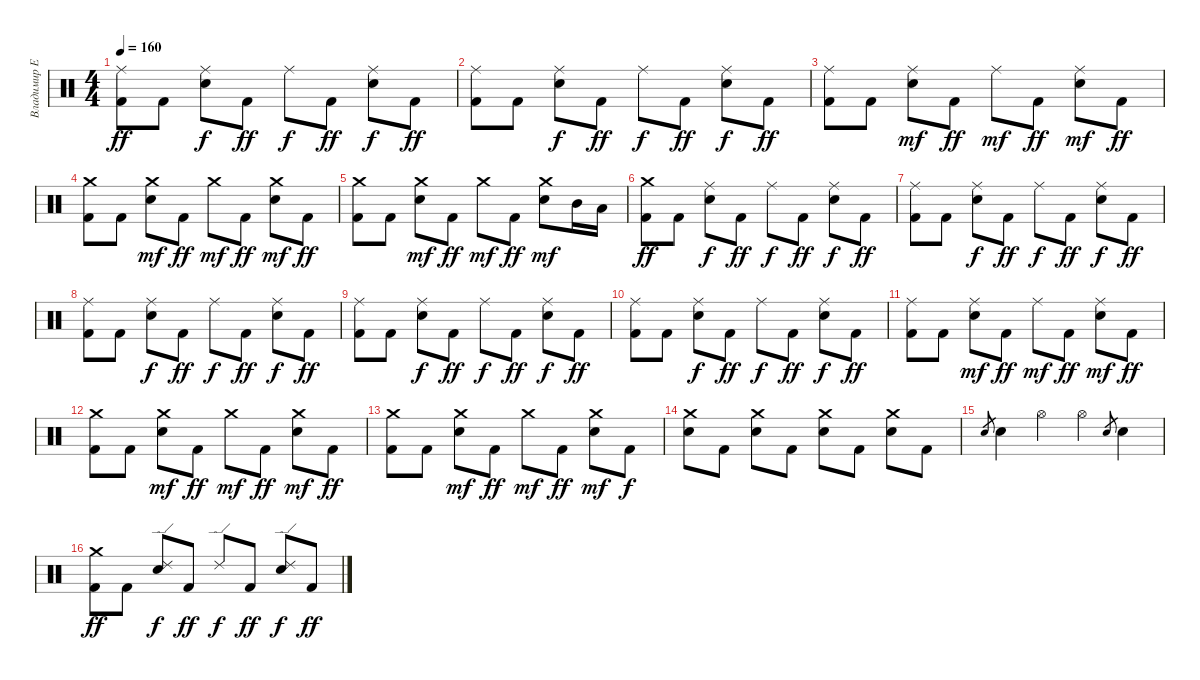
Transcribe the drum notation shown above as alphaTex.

\track ("Владимир Ермаков" "Владимир Е") {instrument percussion}
\staff {score}
\articulation defaults
\ts (4 4)
\tempo 160
\clef neutral
\ks c
("Ride (middle)" "Kick (hit) 2").8{dy ff} "Kick (hit) 2".8 ("Ride (middle)" "Electric Snare (hit)").8{dy f} "Kick (hit) 2".8{dy ff} "Ride (middle)".8{dy f} "Kick (hit) 2".8{dy ff} ("Ride (middle)" "Electric Snare (hit)").8{dy f} "Kick (hit) 2".8{dy ff} |
("Ride (middle)" "Kick (hit) 2").8 "Kick (hit) 2".8 ("Ride (middle)" "Electric Snare (hit)").8{dy f} "Kick (hit) 2".8{dy ff} "Ride (middle)".8{dy f} "Kick (hit) 2".8{dy ff} ("Ride (middle)" "Electric Snare (hit)").8{dy f} "Kick (hit) 2".8{dy ff} |
("Ride (middle)" "Kick (hit) 2").8 "Kick (hit) 2".8 ("Ride (middle)" "Electric Snare (hit)").8{dy mf} "Kick (hit) 2".8{dy ff} "Ride (middle)".8{dy mf} "Kick (hit) 2".8{dy ff} ("Ride (middle)" "Electric Snare (hit)").8{dy mf} "Kick (hit) 2".8{dy ff} |
("Crash medium (hit)" "Kick (hit) 2").8 "Kick (hit) 2".8 ("Crash medium (hit)" "Electric Snare (hit)").8{dy mf} "Kick (hit) 2".8{dy ff} "Crash medium (hit)".8{dy mf} "Kick (hit) 2".8{dy ff} ("Crash medium (hit)" "Electric Snare (hit)").8{dy mf} "Kick (hit) 2".8{dy ff} |
("Crash medium (hit)" "Kick (hit) 2").8 "Kick (hit) 2".8 ("Crash medium (hit)" "Electric Snare (hit)").8{dy mf} "Kick (hit) 2".8{dy ff} "Crash medium (hit)".8{dy mf} "Kick (hit) 2".8{dy ff} ("Crash medium (hit)" "Electric Snare (hit)").8{dy mf} "Mid Tom (hit)".16 "Low Tom (hit)".16 |
("Crash medium (hit)" "Kick (hit) 2").8{dy ff} "Kick (hit) 2".8 ("Ride (middle)" "Electric Snare (hit)").8{dy f} "Kick (hit) 2".8{dy ff} "Ride (middle)".8{dy f} "Kick (hit) 2".8{dy ff} ("Ride (middle)" "Electric Snare (hit)").8{dy f} "Kick (hit) 2".8{dy ff} |
("Ride (middle)" "Kick (hit) 2").8 "Kick (hit) 2".8 ("Ride (middle)" "Electric Snare (hit)").8{dy f} "Kick (hit) 2".8{dy ff} "Ride (middle)".8{dy f} "Kick (hit) 2".8{dy ff} ("Ride (middle)" "Electric Snare (hit)").8{dy f} "Kick (hit) 2".8{dy ff} |
("Ride (middle)" "Kick (hit) 2").8 "Kick (hit) 2".8 ("Ride (middle)" "Electric Snare (hit)").8{dy f} "Kick (hit) 2".8{dy ff} "Ride (middle)".8{dy f} "Kick (hit) 2".8{dy ff} ("Ride (middle)" "Electric Snare (hit)").8{dy f} "Kick (hit) 2".8{dy ff} |
("Ride (middle)" "Kick (hit) 2").8 "Kick (hit) 2".8 ("Ride (middle)" "Electric Snare (hit)").8{dy f} "Kick (hit) 2".8{dy ff} "Ride (middle)".8{dy f} "Kick (hit) 2".8{dy ff} ("Ride (middle)" "Electric Snare (hit)").8{dy f} "Kick (hit) 2".8{dy ff} |
("Ride (middle)" "Kick (hit) 2").8 "Kick (hit) 2".8 ("Ride (middle)" "Electric Snare (hit)").8{dy f} "Kick (hit) 2".8{dy ff} "Ride (middle)".8{dy f} "Kick (hit) 2".8{dy ff} ("Ride (middle)" "Electric Snare (hit)").8{dy f} "Kick (hit) 2".8{dy ff} |
("Ride (middle)" "Kick (hit) 2").8 "Kick (hit) 2".8 ("Ride (middle)" "Electric Snare (hit)").8{dy mf} "Kick (hit) 2".8{dy ff} "Ride (middle)".8{dy mf} "Kick (hit) 2".8{dy ff} ("Ride (middle)" "Electric Snare (hit)").8{dy mf} "Kick (hit) 2".8{dy ff} |
("Crash medium (hit)" "Kick (hit) 2").8 "Kick (hit) 2".8 ("Crash medium (hit)" "Electric Snare (hit)").8{dy mf} "Kick (hit) 2".8{dy ff} "Crash medium (hit)".8{dy mf} "Kick (hit) 2".8{dy ff} ("Crash medium (hit)" "Electric Snare (hit)").8{dy mf} "Kick (hit) 2".8{dy ff} |
("Crash medium (hit)" "Kick (hit) 2").8 "Kick (hit) 2".8 ("Crash medium (hit)" "Electric Snare (hit)").8{dy mf} "Kick (hit) 2".8{dy ff} "Crash medium (hit)".8{dy mf} "Kick (hit) 2".8{dy ff} ("Crash medium (hit)" "Electric Snare (hit)").8{dy mf} "Kick (hit) 2".8{dy f} |
("Crash medium (hit)" "Electric Snare (hit)").8 "Kick (hit) 2".8 ("Crash medium (hit)" "Electric Snare (hit)").8 "Kick (hit) 2".8 ("Crash medium (hit)" "Electric Snare (hit)").8 "Kick (hit) 2".8 ("Crash medium (hit)" "Electric Snare (hit)").8 "Kick (hit) 2".8 |
"Electric Snare (hit)".8{gr} "Electric Snare (hit)".4 "Hi-Hat (open)".4 "Hi-Hat (open)".4 "Electric Snare (hit)".8{gr} "Electric Snare (hit)".4 |
("Crash medium (hit)" "Kick (hit) 2").8{dy ff} "Kick (hit) 2".8 ("Ride (edge) 2" "Electric Snare (hit)").8{dy f} "Kick (hit) 2".8{dy ff} "Ride (edge) 2".8{dy f} "Kick (hit) 2".8{dy ff} ("Ride (edge) 2" "Electric Snare (hit)").8{dy f} "Kick (hit) 2".8{dy ff}
